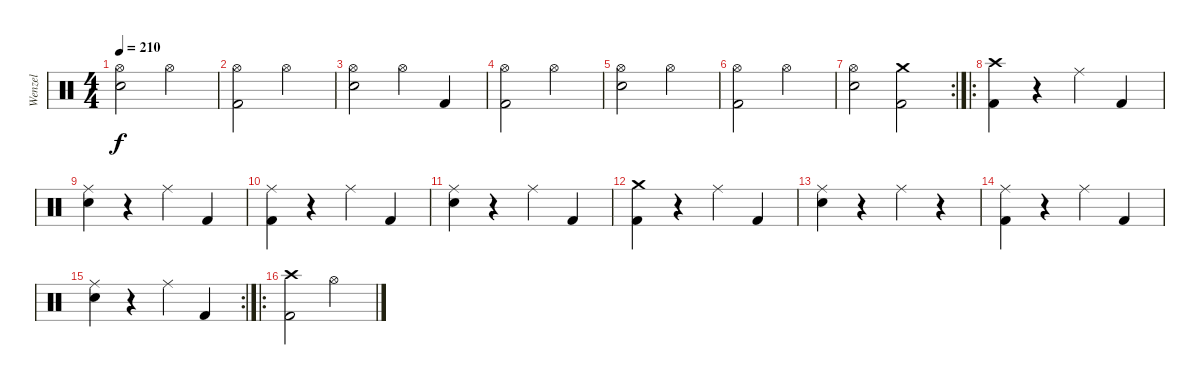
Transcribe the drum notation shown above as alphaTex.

\track ("Wenzel" "Wenzel") {instrument percussion}
\staff {score}
\articulation defaults
\ts (4 4)
\tempo 210
\clef neutral
\ks c
("Hi-Hat (open)" "Snare (hit) 2").2{dy f} "Hi-Hat (open)".2 |
("Hi-Hat (open)" "Kick (hit) 2").2 "Hi-Hat (open)".2 |
("Hi-Hat (open)" "Snare (hit) 2").2 "Hi-Hat (open)".4 "Kick (hit) 2".4 |
("Hi-Hat (open)" "Kick (hit) 2").2 "Hi-Hat (open)".2 |
("Hi-Hat (open)" "Snare (hit) 2").2 "Hi-Hat (open)".2 |
("Hi-Hat (open)" "Kick (hit) 2").2 "Hi-Hat (open)".2 |
\rc 2
("Hi-Hat (open)" "Snare (hit) 2").2 ("Crash medium (hit)" "Kick (hit) 2").2 |
\ro
("Crash high (hit)" "Kick (hit) 2").4 r.4 "Ride (middle)".4 "Kick (hit) 2".4 |
("Ride (middle)" "Snare (hit) 2").4 r.4 "Ride (middle)".4 "Kick (hit) 2".4 |
("Ride (middle)" "Kick (hit) 2").4 r.4 "Ride (middle)".4 "Kick (hit) 2".4 |
("Ride (middle)" "Snare (hit) 2").4 r.4 "Ride (middle)".4 "Kick (hit) 2".4 |
("Crash medium (hit)" "Kick (hit) 2").4 r.4 "Ride (middle)".4 "Kick (hit) 2".4 |
("Ride (middle)" "Snare (hit) 2").4 r.4 "Ride (middle)".4 r.4 |
("Ride (middle)" "Kick (hit) 2").4 r.4 "Ride (middle)".4 "Kick (hit) 2".4 |
\rc 2
("Ride (middle)" "Snare (hit) 2").4 r.4 "Ride (middle)".4 "Kick (hit) 2".4 |
\ro
("Crash high (hit)" "Kick (hit) 2").2 "Hi-Hat (open)".2
